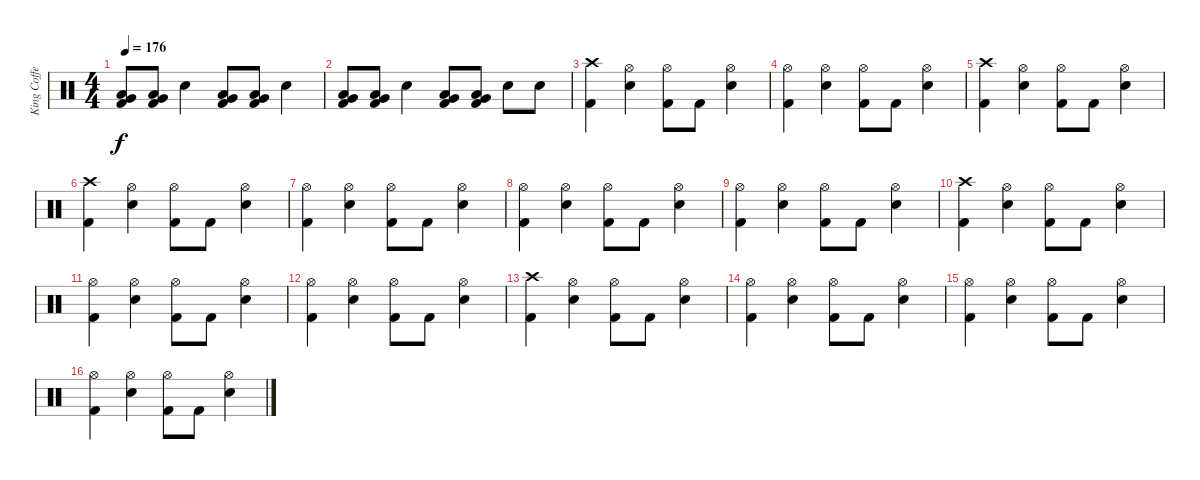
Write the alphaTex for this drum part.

\track ("King Coffey" "King Coffe") {instrument percussion}
\staff {score}
\articulation defaults
\ts (4 4)
\tempo 176
\clef neutral
\ks c
("Very Low Tom (hit)" "Low Tom (hit)" "Kick (hit) 2").8{dy f} ("Very Low Tom (hit)" "Low Tom (hit)" "Kick (hit) 2").8 "Snare (hit) 2".4 ("Very Low Tom (hit)" "Low Tom (hit)" "Kick (hit) 2").8 ("Very Low Tom (hit)" "Low Tom (hit)" "Kick (hit) 2").8 "Snare (hit) 2".4 |
("Very Low Tom (hit)" "Low Tom (hit)" "Kick (hit) 2").8 ("Very Low Tom (hit)" "Low Tom (hit)" "Kick (hit) 2").8 "Snare (hit) 2".4 ("Very Low Tom (hit)" "Low Tom (hit)" "Kick (hit) 2").8 ("Very Low Tom (hit)" "Low Tom (hit)" "Kick (hit) 2").8 "Snare (hit) 2".8 "Snare (hit) 2".8 |
("Crash high (hit)" "Kick (hit) 2").4 ("Hi-Hat (open)" "Snare (hit) 2").4 ("Hi-Hat (open)" "Kick (hit) 2").8 "Kick (hit) 2".8 ("Hi-Hat (open)" "Snare (hit) 2").4 |
("Hi-Hat (open)" "Kick (hit) 2").4 ("Hi-Hat (open)" "Snare (hit) 2").4 ("Hi-Hat (open)" "Kick (hit) 2").8 "Kick (hit) 2".8 ("Hi-Hat (open)" "Snare (hit) 2").4 |
("Crash high (hit)" "Kick (hit) 2").4 ("Hi-Hat (open)" "Snare (hit) 2").4 ("Hi-Hat (open)" "Kick (hit) 2").8 "Kick (hit) 2".8 ("Hi-Hat (open)" "Snare (hit) 2").4 |
("Crash high (hit)" "Kick (hit) 2").4 ("Hi-Hat (open)" "Snare (hit) 2").4 ("Hi-Hat (open)" "Kick (hit) 2").8 "Kick (hit) 2".8 ("Hi-Hat (open)" "Snare (hit) 2").4 |
("Hi-Hat (open)" "Kick (hit) 2").4 ("Hi-Hat (open)" "Snare (hit) 2").4 ("Hi-Hat (open)" "Kick (hit) 2").8 "Kick (hit) 2".8 ("Hi-Hat (open)" "Snare (hit) 2").4 |
("Hi-Hat (open)" "Kick (hit) 2").4 ("Hi-Hat (open)" "Snare (hit) 2").4 ("Hi-Hat (open)" "Kick (hit) 2").8 "Kick (hit) 2".8 ("Hi-Hat (open)" "Snare (hit) 2").4 |
("Hi-Hat (open)" "Kick (hit) 2").4 ("Hi-Hat (open)" "Snare (hit) 2").4 ("Hi-Hat (open)" "Kick (hit) 2").8 "Kick (hit) 2".8 ("Hi-Hat (open)" "Snare (hit) 2").4 |
("Crash high (hit)" "Kick (hit) 2").4 ("Hi-Hat (open)" "Snare (hit) 2").4 ("Hi-Hat (open)" "Kick (hit) 2").8 "Kick (hit) 2".8 ("Hi-Hat (open)" "Snare (hit) 2").4 |
("Hi-Hat (open)" "Kick (hit) 2").4 ("Hi-Hat (open)" "Snare (hit) 2").4 ("Hi-Hat (open)" "Kick (hit) 2").8 "Kick (hit) 2".8 ("Hi-Hat (open)" "Snare (hit) 2").4 |
("Hi-Hat (open)" "Kick (hit) 2").4 ("Hi-Hat (open)" "Snare (hit) 2").4 ("Hi-Hat (open)" "Kick (hit) 2").8 "Kick (hit) 2".8 ("Hi-Hat (open)" "Snare (hit) 2").4 |
("Crash high (hit)" "Kick (hit) 2").4 ("Hi-Hat (open)" "Snare (hit) 2").4 ("Hi-Hat (open)" "Kick (hit) 2").8 "Kick (hit) 2".8 ("Hi-Hat (open)" "Snare (hit) 2").4 |
("Hi-Hat (open)" "Kick (hit) 2").4 ("Hi-Hat (open)" "Snare (hit) 2").4 ("Hi-Hat (open)" "Kick (hit) 2").8 "Kick (hit) 2".8 ("Hi-Hat (open)" "Snare (hit) 2").4 |
("Hi-Hat (open)" "Kick (hit) 2").4 ("Hi-Hat (open)" "Snare (hit) 2").4 ("Hi-Hat (open)" "Kick (hit) 2").8 "Kick (hit) 2".8 ("Hi-Hat (open)" "Snare (hit) 2").4 |
("Hi-Hat (open)" "Kick (hit) 2").4 ("Hi-Hat (open)" "Snare (hit) 2").4 ("Hi-Hat (open)" "Kick (hit) 2").8 "Kick (hit) 2".8 ("Hi-Hat (open)" "Snare (hit) 2").4
